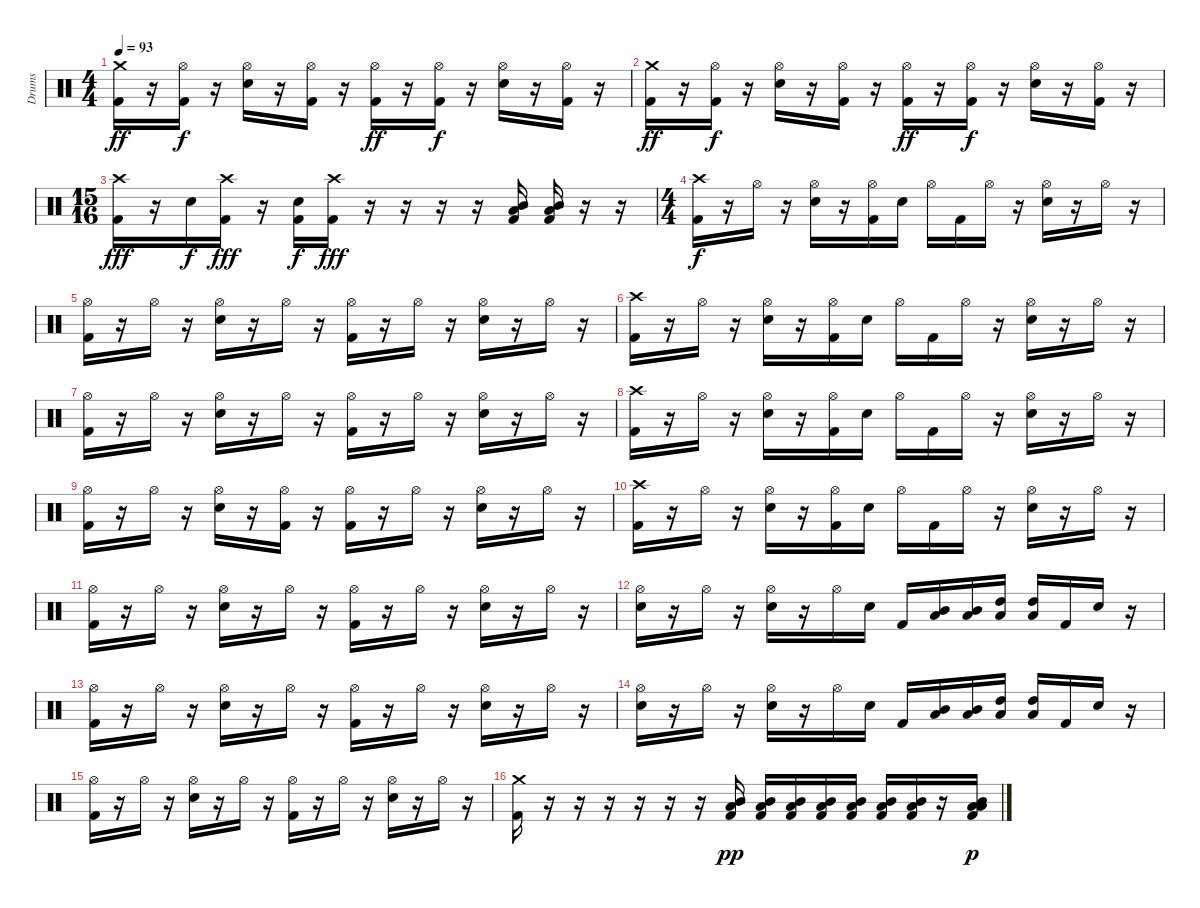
\track ("Drums" "Drums") {instrument percussion}
\staff {score}
\articulation defaults
\ts (4 4)
\tempo 93
\clef neutral
\ks c
("Crash medium (hit)" "Kick (hit) 2").16{dy ff} r.16 ("Hi-Hat (open)" "Kick (hit) 2").16{dy f} r.16 ("Hi-Hat (open)" "Electric Snare (hit)").16 r.16 ("Hi-Hat (open)" "Kick (hit) 2").16 r.16 ("Hi-Hat (open)" "Kick (hit) 2").16{dy ff} r.16 ("Hi-Hat (open)" "Kick (hit) 2").16{dy f} r.16 ("Hi-Hat (open)" "Electric Snare (hit)").16 r.16 ("Hi-Hat (open)" "Kick (hit) 2").16 r.16 |
("Crash medium (hit)" "Kick (hit) 2").16{dy ff} r.16 ("Hi-Hat (open)" "Kick (hit) 2").16{dy f} r.16 ("Hi-Hat (open)" "Electric Snare (hit)").16 r.16 ("Hi-Hat (open)" "Kick (hit) 2").16 r.16 ("Hi-Hat (open)" "Kick (hit) 2").16{dy ff} r.16 ("Hi-Hat (open)" "Kick (hit) 2").16{dy f} r.16 ("Hi-Hat (open)" "Electric Snare (hit)").16 r.16 ("Hi-Hat (open)" "Kick (hit) 2").16 r.16 |
\ts (15 16)
("Crash high (hit)" "Kick (hit) 2").16{dy fff} r.16 "Electric Snare (hit)".16{dy f} ("Crash high (hit)" "Kick (hit) 2").16{dy fff} r.16 ("Electric Snare (hit)" "Kick (hit) 2").16{dy f} ("Crash high (hit)" "Kick (hit) 2").16{dy fff} r.16 r.16 r.16 r.16 ("Mid Tom (hit)" "Low Tom (hit)" "Kick (hit) 2").16 ("Mid Tom (hit)" "Low Tom (hit)" "Kick (hit) 2").16 r.16 r.16 |
\ts (4 4)
("Crash high (hit)" "Kick (hit) 2").16{dy f} r.16 "Hi-Hat (open)".16 r.16 ("Hi-Hat (open)" "Electric Snare (hit)").16 r.16 ("Hi-Hat (open)" "Kick (hit) 2").16 "Electric Snare (hit)".16 "Hi-Hat (open)".16 "Kick (hit) 2".16 "Hi-Hat (open)".16 r.16 ("Hi-Hat (open)" "Electric Snare (hit)").16 r.16 "Hi-Hat (open)".16 r.16 |
("Hi-Hat (open)" "Kick (hit) 2").16 r.16 "Hi-Hat (open)".16 r.16 ("Hi-Hat (open)" "Electric Snare (hit)").16 r.16 "Hi-Hat (open)".16 r.16 ("Hi-Hat (open)" "Kick (hit) 2").16 r.16 "Hi-Hat (open)".16 r.16 ("Hi-Hat (open)" "Electric Snare (hit)").16 r.16 "Hi-Hat (open)".16 r.16 |
("Crash high (hit)" "Kick (hit) 2").16 r.16 "Hi-Hat (open)".16 r.16 ("Hi-Hat (open)" "Electric Snare (hit)").16 r.16 ("Hi-Hat (open)" "Kick (hit) 2").16 "Electric Snare (hit)".16 "Hi-Hat (open)".16 "Kick (hit) 2".16 "Hi-Hat (open)".16 r.16 ("Hi-Hat (open)" "Electric Snare (hit)").16 r.16 "Hi-Hat (open)".16 r.16 |
("Hi-Hat (open)" "Kick (hit) 2").16 r.16 "Hi-Hat (open)".16 r.16 ("Hi-Hat (open)" "Electric Snare (hit)").16 r.16 "Hi-Hat (open)".16 r.16 ("Hi-Hat (open)" "Kick (hit) 2").16 r.16 "Hi-Hat (open)".16 r.16 ("Hi-Hat (open)" "Electric Snare (hit)").16 r.16 "Hi-Hat (open)".16 r.16 |
("Crash high (hit)" "Kick (hit) 2").16 r.16 "Hi-Hat (open)".16 r.16 ("Hi-Hat (open)" "Electric Snare (hit)").16 r.16 ("Hi-Hat (open)" "Kick (hit) 2").16 "Electric Snare (hit)".16 "Hi-Hat (open)".16 "Kick (hit) 2".16 "Hi-Hat (open)".16 r.16 ("Hi-Hat (open)" "Electric Snare (hit)").16 r.16 "Hi-Hat (open)".16 r.16 |
("Hi-Hat (open)" "Kick (hit) 2").16 r.16 "Hi-Hat (open)".16 r.16 ("Hi-Hat (open)" "Electric Snare (hit)").16 r.16 ("Hi-Hat (open)" "Kick (hit) 2").16 r.16 ("Hi-Hat (open)" "Kick (hit) 2").16 r.16 "Hi-Hat (open)".16 r.16 ("Hi-Hat (open)" "Electric Snare (hit)").16 r.16 "Hi-Hat (open)".16 r.16 |
("Crash high (hit)" "Kick (hit) 2").16 r.16 "Hi-Hat (open)".16 r.16 ("Hi-Hat (open)" "Electric Snare (hit)").16 r.16 ("Hi-Hat (open)" "Kick (hit) 2").16 "Electric Snare (hit)".16 "Hi-Hat (open)".16 "Kick (hit) 2".16 "Hi-Hat (open)".16 r.16 ("Hi-Hat (open)" "Electric Snare (hit)").16 r.16 "Hi-Hat (open)".16 r.16 |
("Hi-Hat (open)" "Kick (hit) 2").16 r.16 "Hi-Hat (open)".16 r.16 ("Hi-Hat (open)" "Electric Snare (hit)").16 r.16 "Hi-Hat (open)".16 r.16 ("Hi-Hat (open)" "Kick (hit) 2").16 r.16 "Hi-Hat (open)".16 r.16 ("Hi-Hat (open)" "Electric Snare (hit)").16 r.16 "Hi-Hat (open)".16 r.16 |
("Hi-Hat (open)" "Electric Snare (hit)").16 r.16 "Hi-Hat (open)".16 r.16 ("Hi-Hat (open)" "Electric Snare (hit)").16 r.16 "Hi-Hat (open)".16 "Electric Snare (hit)".16 "Kick (hit) 2".16 ("Mid Tom (hit)" "Low Tom (hit)").16 ("Mid Tom (hit)" "Low Tom (hit)").16 ("High Tom (hit)" "Low Tom (hit)").16 ("High Tom (hit)" "Low Tom (hit)").16 "Kick (hit) 2".16 "Electric Snare (hit)".16 r.16 |
("Hi-Hat (open)" "Kick (hit) 2").16 r.16 "Hi-Hat (open)".16 r.16 ("Hi-Hat (open)" "Electric Snare (hit)").16 r.16 "Hi-Hat (open)".16 r.16 ("Hi-Hat (open)" "Kick (hit) 2").16 r.16 "Hi-Hat (open)".16 r.16 ("Hi-Hat (open)" "Electric Snare (hit)").16 r.16 "Hi-Hat (open)".16 r.16 |
("Hi-Hat (open)" "Electric Snare (hit)").16 r.16 "Hi-Hat (open)".16 r.16 ("Hi-Hat (open)" "Electric Snare (hit)").16 r.16 "Hi-Hat (open)".16 "Electric Snare (hit)".16 "Kick (hit) 2".16 ("Mid Tom (hit)" "Low Tom (hit)").16 ("Mid Tom (hit)" "Low Tom (hit)").16 ("High Tom (hit)" "Low Tom (hit)").16 ("High Tom (hit)" "Low Tom (hit)").16 "Kick (hit) 2".16 "Electric Snare (hit)".16 r.16 |
("Hi-Hat (open)" "Kick (hit) 2").16 r.16 "Hi-Hat (open)".16 r.16 ("Hi-Hat (open)" "Electric Snare (hit)").16 r.16 "Hi-Hat (open)".16 r.16 ("Hi-Hat (open)" "Kick (hit) 2").16 r.16 "Hi-Hat (open)".16 r.16 ("Hi-Hat (open)" "Electric Snare (hit)").16 r.16 "Hi-Hat (open)".16 r.16 |
("Crash medium (hit)" "Kick (hit) 2").16 r.16 r.16 r.16 r.16 r.16 r.16 ("Mid Tom (hit)" "Low Tom (hit)" "Kick (hit) 2").16{dy pp} ("Mid Tom (hit)" "Low Tom (hit)" "Kick (hit) 2").16 ("Mid Tom (hit)" "Low Tom (hit)" "Kick (hit) 2").16 ("Mid Tom (hit)" "Low Tom (hit)" "Kick (hit) 2").16 ("Mid Tom (hit)" "Low Tom (hit)" "Kick (hit) 2").16 ("Mid Tom (hit)" "Low Tom (hit)" "Kick (hit) 2").16 ("Mid Tom (hit)" "Low Tom (hit)" "Kick (hit) 2").16 r.16 ("Mid Tom (hit)" "Low Tom (hit)" "Low Tom (hit)" "Kick (hit) 2").16{dy p}
